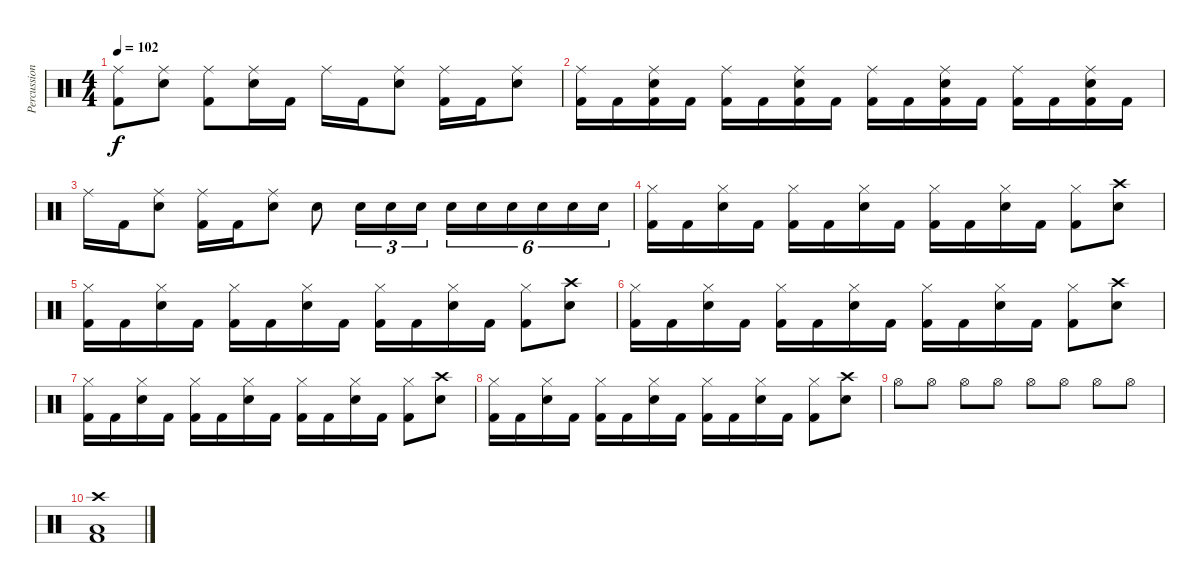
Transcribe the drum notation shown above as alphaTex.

\track ("Percussion" "Percussion") {instrument percussion}
\staff {score}
\articulation defaults
\ts (4 4)
\tempo 102
\clef neutral
\ks c
("Kick (hit) 2" "Ride (middle)").8{dy f} ("Snare (hit) 2" "Ride (middle)").8 ("Kick (hit) 2" "Ride (middle)").8 ("Snare (hit) 2" "Ride (middle)").16 "Kick (hit) 2".16 "Ride (middle)".16 "Kick (hit) 2".16 ("Snare (hit) 2" "Ride (middle)").8 ("Kick (hit) 2" "Ride (middle)").16 "Kick (hit) 2".16 ("Snare (hit) 2" "Ride (middle)").8 |
("Kick (hit) 2" "Ride (middle)").16 "Kick (hit) 2".16 ("Snare (hit) 2" "Kick (hit) 2" "Ride (middle)").16 "Kick (hit) 2".16 ("Kick (hit) 2" "Ride (middle)").16 "Kick (hit) 2".16 ("Snare (hit) 2" "Kick (hit) 2" "Ride (middle)").16 "Kick (hit) 2".16 ("Kick (hit) 2" "Ride (middle)").16 "Kick (hit) 2".16 ("Snare (hit) 2" "Kick (hit) 2" "Ride (middle)").16 "Kick (hit) 2".16 ("Kick (hit) 2" "Ride (middle)").16 "Kick (hit) 2".16 ("Snare (hit) 2" "Kick (hit) 2" "Ride (middle)").16 "Kick (hit) 2".16 |
"Ride (middle)".16 "Kick (hit) 2".16 ("Snare (hit) 2" "Ride (middle)").8 ("Kick (hit) 2" "Ride (middle)").16 "Kick (hit) 2".16 ("Snare (hit) 2" "Ride (middle)").8 "Electric Snare (hit)".8 "Snare (hit) 2".16{tu (3 2)} "Snare (hit) 2".16{tu (3 2)} "Snare (hit) 2".16{tu (3 2)} "Snare (hit) 2".16{tu (6 4)} "Snare (hit) 2".16{tu (6 4)} "Snare (hit) 2".16{tu (6 4)} "Snare (hit) 2".16{tu (6 4)} "Snare (hit) 2".16{tu (6 4)} "Snare (hit) 2".16{tu (6 4)} |
("Kick (hit) 2" "Hi-Hat (closed)").16 "Kick (hit) 2".16 ("Snare (hit) 2" "Hi-Hat (closed)").16 "Kick (hit) 2".16 ("Kick (hit) 2" "Hi-Hat (closed)").16 "Kick (hit) 2".16 ("Snare (hit) 2" "Hi-Hat (closed)").16 "Kick (hit) 2".16 ("Kick (hit) 2" "Hi-Hat (closed)").16 "Kick (hit) 2".16 ("Snare (hit) 2" "Hi-Hat (closed)").16 "Kick (hit) 2".16 ("Kick (hit) 2" "Hi-Hat (closed)").8 ("Snare (hit) 2" "Crash high (hit)").8 |
("Kick (hit) 2" "Hi-Hat (closed)").16 "Kick (hit) 2".16 ("Snare (hit) 2" "Hi-Hat (closed)").16 "Kick (hit) 2".16 ("Kick (hit) 2" "Hi-Hat (closed)").16 "Kick (hit) 2".16 ("Snare (hit) 2" "Hi-Hat (closed)").16 "Kick (hit) 2".16 ("Kick (hit) 2" "Hi-Hat (closed)").16 "Kick (hit) 2".16 ("Snare (hit) 2" "Hi-Hat (closed)").16 "Kick (hit) 2".16 ("Kick (hit) 2" "Hi-Hat (closed)").8 ("Snare (hit) 2" "Crash high (hit)").8 |
("Kick (hit) 2" "Hi-Hat (closed)").16 "Kick (hit) 2".16 ("Snare (hit) 2" "Hi-Hat (closed)").16 "Kick (hit) 2".16 ("Kick (hit) 2" "Hi-Hat (closed)").16 "Kick (hit) 2".16 ("Snare (hit) 2" "Hi-Hat (closed)").16 "Kick (hit) 2".16 ("Kick (hit) 2" "Hi-Hat (closed)").16 "Kick (hit) 2".16 ("Snare (hit) 2" "Hi-Hat (closed)").16 "Kick (hit) 2".16 ("Kick (hit) 2" "Hi-Hat (closed)").8 ("Snare (hit) 2" "Crash high (hit)").8 |
("Kick (hit) 2" "Hi-Hat (closed)").16 "Kick (hit) 2".16 ("Snare (hit) 2" "Hi-Hat (closed)").16 "Kick (hit) 2".16 ("Kick (hit) 2" "Hi-Hat (closed)").16 "Kick (hit) 2".16 ("Snare (hit) 2" "Hi-Hat (closed)").16 "Kick (hit) 2".16 ("Kick (hit) 2" "Hi-Hat (closed)").16 "Kick (hit) 2".16 ("Snare (hit) 2" "Hi-Hat (closed)").16 "Kick (hit) 2".16 ("Kick (hit) 2" "Hi-Hat (closed)").8 ("Snare (hit) 2" "Crash high (hit)").8 |
("Kick (hit) 2" "Hi-Hat (closed)").16 "Kick (hit) 2".16 ("Snare (hit) 2" "Hi-Hat (closed)").16 "Kick (hit) 2".16 ("Kick (hit) 2" "Hi-Hat (closed)").16 "Kick (hit) 2".16 ("Snare (hit) 2" "Hi-Hat (closed)").16 "Kick (hit) 2".16 ("Kick (hit) 2" "Hi-Hat (closed)").16 "Kick (hit) 2".16 ("Snare (hit) 2" "Hi-Hat (closed)").16 "Kick (hit) 2".16 ("Kick (hit) 2" "Hi-Hat (closed)").8 ("Snare (hit) 2" "Crash high (hit)").8 |
"Hi-Hat (open)".8 "Hi-Hat (open)".8 "Hi-Hat (open)".8 "Hi-Hat (open)".8 "Hi-Hat (open)".8 "Hi-Hat (open)".8 "Hi-Hat (open)".8 "Hi-Hat (open)".8 |
("Low Floor Tom (hit)" "Kick (hit) 2" "Crash high (hit)").1
